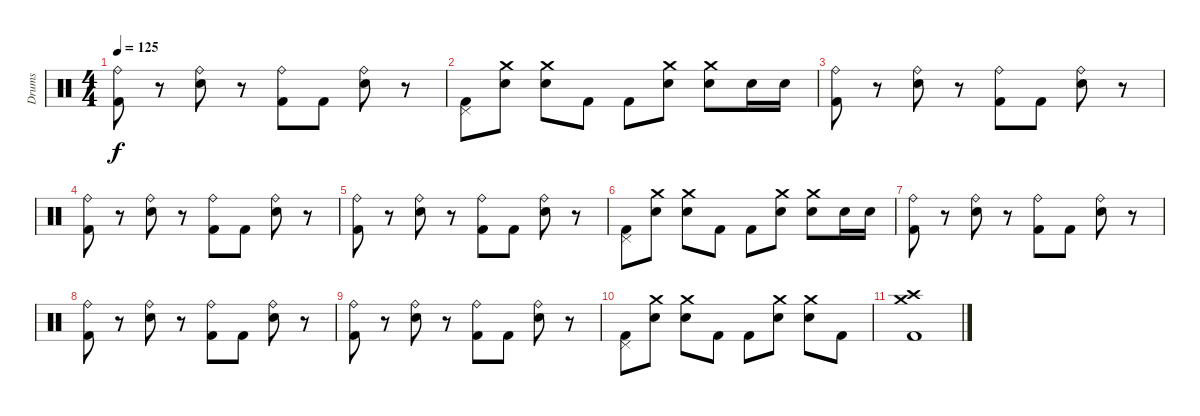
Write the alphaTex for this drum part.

\track ("Drums" "Drums") {instrument percussion}
\staff {score}
\articulation defaults
\ts (4 4)
\tempo 125
\clef neutral
\ks c
("Ride (bell)" "Kick (hit) 2").8{dy f} r.8 ("Ride (bell)" "Snare (hit) 2").8 r.8 ("Ride (bell)" "Kick (hit) 2").8 "Kick (hit) 2".8 ("Ride (bell)" "Snare (hit) 2").8 r.8 |
("Pedal Hi-Hat (hit)" "Kick (hit) 2").8 ("Crash medium (hit)" "Snare (hit) 2").8 ("Crash medium (hit)" "Snare (hit) 2").8 "Kick (hit) 2".8 "Kick (hit) 2".8 ("Crash medium (hit)" "Snare (hit) 2").8 ("Crash medium (hit)" "Snare (hit) 2").8 "Snare (hit) 2".16 "Snare (hit) 2".16 |
("Ride (bell)" "Kick (hit) 2").8 r.8 ("Ride (bell)" "Snare (hit) 2").8 r.8 ("Ride (bell)" "Kick (hit) 2").8 "Kick (hit) 2".8 ("Ride (bell)" "Snare (hit) 2").8 r.8 |
("Ride (bell)" "Kick (hit) 2").8 r.8 ("Ride (bell)" "Snare (hit) 2").8 r.8 ("Ride (bell)" "Kick (hit) 2").8 "Kick (hit) 2".8 ("Ride (bell)" "Snare (hit) 2").8 r.8 |
("Ride (bell)" "Kick (hit) 2").8 r.8 ("Ride (bell)" "Snare (hit) 2").8 r.8 ("Ride (bell)" "Kick (hit) 2").8 "Kick (hit) 2".8 ("Ride (bell)" "Snare (hit) 2").8 r.8 |
("Pedal Hi-Hat (hit)" "Kick (hit) 2").8 ("Crash medium (hit)" "Snare (hit) 2").8 ("Crash medium (hit)" "Snare (hit) 2").8 "Kick (hit) 2".8 "Kick (hit) 2".8 ("Crash medium (hit)" "Snare (hit) 2").8 ("Crash medium (hit)" "Snare (hit) 2").8 "Snare (hit) 2".16 "Snare (hit) 2".16 |
("Ride (bell)" "Kick (hit) 2").8 r.8 ("Ride (bell)" "Snare (hit) 2").8 r.8 ("Ride (bell)" "Kick (hit) 2").8 "Kick (hit) 2".8 ("Ride (bell)" "Snare (hit) 2").8 r.8 |
("Ride (bell)" "Kick (hit) 2").8 r.8 ("Ride (bell)" "Snare (hit) 2").8 r.8 ("Ride (bell)" "Kick (hit) 2").8 "Kick (hit) 2".8 ("Ride (bell)" "Snare (hit) 2").8 r.8 |
("Ride (bell)" "Kick (hit) 2").8 r.8 ("Ride (bell)" "Snare (hit) 2").8 r.8 ("Ride (bell)" "Kick (hit) 2").8 "Kick (hit) 2".8 ("Ride (bell)" "Snare (hit) 2").8 r.8 |
("Pedal Hi-Hat (hit)" "Kick (hit) 2").8 ("Crash medium (hit)" "Snare (hit) 2").8 ("Crash medium (hit)" "Snare (hit) 2").8 "Kick (hit) 2".8 "Kick (hit) 2".8 ("Crash medium (hit)" "Snare (hit) 2").8 ("Crash medium (hit)" "Snare (hit) 2").8 "Kick (hit) 2".8 |
("Crash medium (hit)" "Crash high (hit)" "Kick (hit) 2").1
